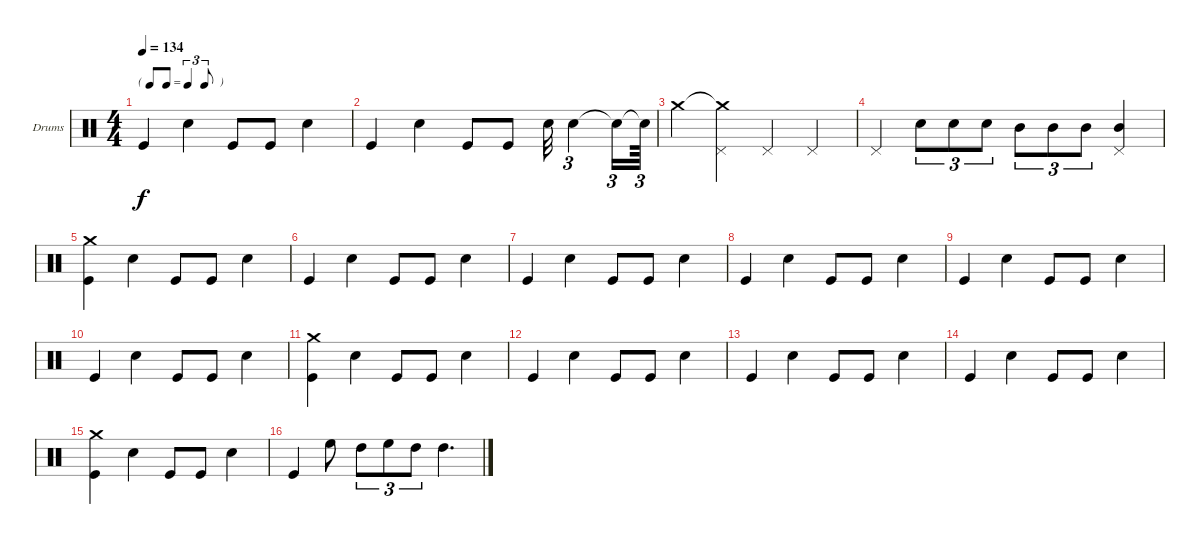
\bracketExtendMode groupsimilarinstruments
\firstSystemTrackNameOrientation horizontal
\otherSystemsTrackNameOrientation horizontal
\track ("Drumkit" "Drums") {instrument percussion}
\staff {score}
\articulation defaults
\ts (4 4)
\tf triplet8th
\tempo 134
\clef neutral
\ks c "Kick (hit)".4{dy f} "Snare (hit) 2".4 "Kick (hit)".8 "Kick (hit)".8 "Snare (hit) 2".4
|
"Kick (hit)".4 "Snare (hit) 2".4 "Kick (hit)".8 "Kick (hit)".8 "Snare (hit) 2".32 "Snare (hit) 2".4{tu (3 2)} "Snare (hit) 2"{t}.16{tu (3 2)} "Snare (hit) 2"{t}.64{tu (3 2)} |
"Crash medium (hit)".4 ("Crash medium (hit)"{t} "Pedal Hi-Hat (hit)").4 "Pedal Hi-Hat (hit)".4 "Pedal Hi-Hat (hit)".4 |
"Pedal Hi-Hat (hit)".4 "Snare (hit) 2".8{tu (3 2)} "Snare (hit) 2".8{tu (3 2)} "Snare (hit) 2".8{tu (3 2)} "Mid Tom (hit)".8{tu (3 2)} "Mid Tom (hit)".8{tu (3 2)} "Mid Tom (hit)".8{tu (3 2)} ("Mid Tom (hit)" "Pedal Hi-Hat (hit)").4 |
("Kick (hit)" "Crash medium (hit)").4 "Snare (hit) 2".4 "Kick (hit)".8 "Kick (hit)".8 "Snare (hit) 2".4 |
"Kick (hit)".4 "Snare (hit) 2".4 "Kick (hit)".8 "Kick (hit)".8 "Snare (hit) 2".4 |
"Kick (hit)".4 "Snare (hit) 2".4 "Kick (hit)".8 "Kick (hit)".8 "Snare (hit) 2".4 |
"Kick (hit)".4 "Snare (hit) 2".4 "Kick (hit)".8 "Kick (hit)".8 "Snare (hit) 2".4 |
"Kick (hit)".4 "Snare (hit) 2".4 "Kick (hit)".8 "Kick (hit)".8 "Snare (hit) 2".4 |
"Kick (hit)".4 "Snare (hit) 2".4 "Kick (hit)".8 "Kick (hit)".8 "Snare (hit) 2".4 |
("Kick (hit)" "Crash medium (hit)").4 "Snare (hit) 2".4 "Kick (hit)".8 "Kick (hit)".8 "Snare (hit) 2".4 |
"Kick (hit)".4 "Snare (hit) 2".4 "Kick (hit)".8 "Kick (hit)".8 "Snare (hit) 2".4 |
"Kick (hit)".4 "Snare (hit) 2".4 "Kick (hit)".8 "Kick (hit)".8 "Snare (hit) 2".4 |
"Kick (hit)".4 "Snare (hit) 2".4 "Kick (hit)".8 "Kick (hit)".8 "Snare (hit) 2".4 |
("Kick (hit)" "Crash medium (hit)").4 "Snare (hit) 2".4 "Kick (hit)".8 "Kick (hit)".8 "Snare (hit) 2".4 |
"Kick (hit)".4 "High Floor Tom (hit)".8 "High Tom (hit)".8{tu (3 2)} "High Floor Tom (hit)".8{tu (3 2)} "High Tom (hit)".8{tu (3 2)} "High Tom (hit)".4{d}
